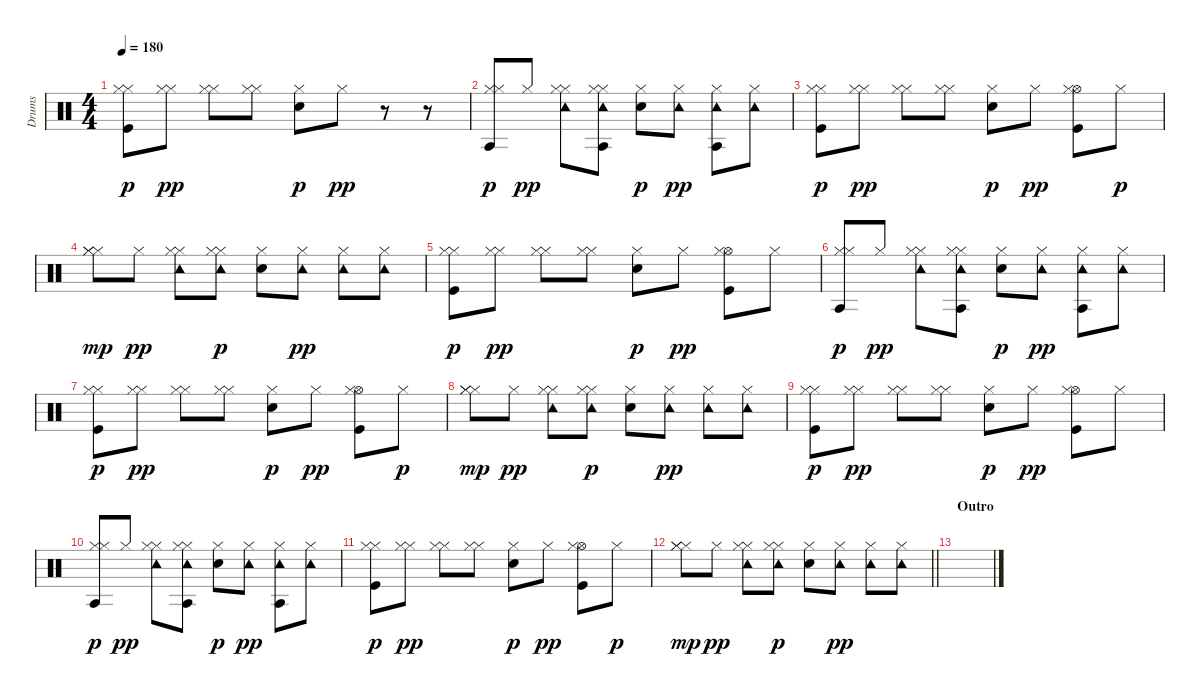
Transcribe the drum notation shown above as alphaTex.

\track ("Drums" "Drums") {instrument percussion}
\staff {score}
\articulation defaults
\ts (4 4)
\tempo 180
\clef neutral
\ks c
("Hi-Hat (closed)" "Hi-Hat (closed)" "Kick (hit)").8{dy p} ("Hi-Hat (closed)" "Hi-Hat (closed)").8{dy pp} ("Hi-Hat (closed)" "Hi-Hat (closed)").8 ("Hi-Hat (closed)" "Hi-Hat (closed)").8 ("Electric Snare (hit)" "Hi-Hat (closed)").8{dy p} "Hi-Hat (closed)".8{dy pp} r.8 r.8 |
("Agogo tow (hit)" "Hi-Hat (closed)" "Hi-Hat (closed)").8{dy p} "Hi-Hat (closed)".8{dy pp} ("Tambourine (hit)" "Hi-Hat (closed)" "Hi-Hat (closed)").8 ("Tambourine (hit)" "Hi-Hat (closed)" "Hi-Hat (closed)" "Agogo tow (hit)").8 ("Electric Snare (hit)" "Hi-Hat (closed)").8{dy p} ("Tambourine (hit)" "Hi-Hat (closed)").8{dy pp} ("Tambourine (hit)" "Hi-Hat (closed)" "Agogo tow (hit)").8 ("Tambourine (hit)" "Hi-Hat (closed)").8 |
("Hi-Hat (closed)" "Hi-Hat (closed)" "Kick (hit)").8{dy p} ("Hi-Hat (closed)" "Hi-Hat (closed)").8{dy pp} ("Hi-Hat (closed)" "Hi-Hat (closed)").8 ("Hi-Hat (closed)" "Hi-Hat (closed)").8 ("Electric Snare (hit)" "Hi-Hat (closed)").8{dy p} "Hi-Hat (closed)".8{dy pp} ("Hi-Hat (open)" "Hi-Hat (closed)" "Kick (hit)").8 "Hi-Hat (closed)".8{dy p} |
("Hi-Hat (closed)" "Hi-Hat (closed)" "Hi-Hat (closed)").8{dy mp} "Hi-Hat (closed)".8{dy pp} ("Tambourine (hit)" "Hi-Hat (closed)" "Hi-Hat (closed)").8 ("Tambourine (hit)" "Hi-Hat (closed)" "Hi-Hat (closed)").8{dy p} ("Electric Snare (hit)" "Hi-Hat (closed)").8 ("Tambourine (hit)" "Hi-Hat (closed)").8{dy pp} ("Tambourine (hit)" "Hi-Hat (closed)").8 ("Tambourine (hit)" "Hi-Hat (closed)").8 |
("Hi-Hat (closed)" "Hi-Hat (closed)" "Kick (hit)").8{dy p} ("Hi-Hat (closed)" "Hi-Hat (closed)").8{dy pp} ("Hi-Hat (closed)" "Hi-Hat (closed)").8 ("Hi-Hat (closed)" "Hi-Hat (closed)").8 ("Electric Snare (hit)" "Hi-Hat (closed)").8{dy p} "Hi-Hat (closed)".8{dy pp} ("Hi-Hat (open)" "Hi-Hat (closed)" "Kick (hit)").8 "Hi-Hat (closed)".8 |
("Agogo tow (hit)" "Hi-Hat (closed)" "Hi-Hat (closed)").8{dy p} "Hi-Hat (closed)".8{dy pp} ("Tambourine (hit)" "Hi-Hat (closed)" "Hi-Hat (closed)").8 ("Tambourine (hit)" "Hi-Hat (closed)" "Hi-Hat (closed)" "Agogo tow (hit)").8 ("Electric Snare (hit)" "Hi-Hat (closed)").8{dy p} ("Tambourine (hit)" "Hi-Hat (closed)").8{dy pp} ("Tambourine (hit)" "Hi-Hat (closed)" "Agogo tow (hit)").8 ("Tambourine (hit)" "Hi-Hat (closed)").8 |
("Hi-Hat (closed)" "Hi-Hat (closed)" "Kick (hit)").8{dy p} ("Hi-Hat (closed)" "Hi-Hat (closed)").8{dy pp} ("Hi-Hat (closed)" "Hi-Hat (closed)").8 ("Hi-Hat (closed)" "Hi-Hat (closed)").8 ("Electric Snare (hit)" "Hi-Hat (closed)").8{dy p} "Hi-Hat (closed)".8{dy pp} ("Hi-Hat (open)" "Hi-Hat (closed)" "Kick (hit)").8 "Hi-Hat (closed)".8{dy p} |
("Hi-Hat (closed)" "Hi-Hat (closed)" "Hi-Hat (closed)").8{dy mp} "Hi-Hat (closed)".8{dy pp} ("Tambourine (hit)" "Hi-Hat (closed)" "Hi-Hat (closed)").8 ("Tambourine (hit)" "Hi-Hat (closed)" "Hi-Hat (closed)").8{dy p} ("Electric Snare (hit)" "Hi-Hat (closed)").8 ("Tambourine (hit)" "Hi-Hat (closed)").8{dy pp} ("Tambourine (hit)" "Hi-Hat (closed)").8 ("Tambourine (hit)" "Hi-Hat (closed)").8 |
("Hi-Hat (closed)" "Hi-Hat (closed)" "Kick (hit)").8{dy p} ("Hi-Hat (closed)" "Hi-Hat (closed)").8{dy pp} ("Hi-Hat (closed)" "Hi-Hat (closed)").8 ("Hi-Hat (closed)" "Hi-Hat (closed)").8 ("Electric Snare (hit)" "Hi-Hat (closed)").8{dy p} "Hi-Hat (closed)".8{dy pp} ("Hi-Hat (open)" "Hi-Hat (closed)" "Kick (hit)").8 "Hi-Hat (closed)".8 |
("Agogo tow (hit)" "Hi-Hat (closed)" "Hi-Hat (closed)").8{dy p} "Hi-Hat (closed)".8{dy pp} ("Tambourine (hit)" "Hi-Hat (closed)" "Hi-Hat (closed)").8 ("Tambourine (hit)" "Hi-Hat (closed)" "Hi-Hat (closed)" "Agogo tow (hit)").8 ("Electric Snare (hit)" "Hi-Hat (closed)").8{dy p} ("Tambourine (hit)" "Hi-Hat (closed)").8{dy pp} ("Tambourine (hit)" "Hi-Hat (closed)" "Agogo tow (hit)").8 ("Tambourine (hit)" "Hi-Hat (closed)").8 |
("Hi-Hat (closed)" "Hi-Hat (closed)" "Kick (hit)").8{dy p} ("Hi-Hat (closed)" "Hi-Hat (closed)").8{dy pp} ("Hi-Hat (closed)" "Hi-Hat (closed)").8 ("Hi-Hat (closed)" "Hi-Hat (closed)").8 ("Electric Snare (hit)" "Hi-Hat (closed)").8{dy p} "Hi-Hat (closed)".8{dy pp} ("Hi-Hat (open)" "Hi-Hat (closed)" "Kick (hit)").8 "Hi-Hat (closed)".8{dy p} |
\barLineRight lightlight
("Hi-Hat (closed)" "Hi-Hat (closed)" "Hi-Hat (closed)").8{dy mp} "Hi-Hat (closed)".8{dy pp} ("Tambourine (hit)" "Hi-Hat (closed)" "Hi-Hat (closed)").8 ("Tambourine (hit)" "Hi-Hat (closed)" "Hi-Hat (closed)").8{dy p} ("Electric Snare (hit)" "Hi-Hat (closed)").8 ("Tambourine (hit)" "Hi-Hat (closed)").8{dy pp} ("Tambourine (hit)" "Hi-Hat (closed)").8 ("Tambourine (hit)" "Hi-Hat (closed)").8 |
\section ("" "Outro")
